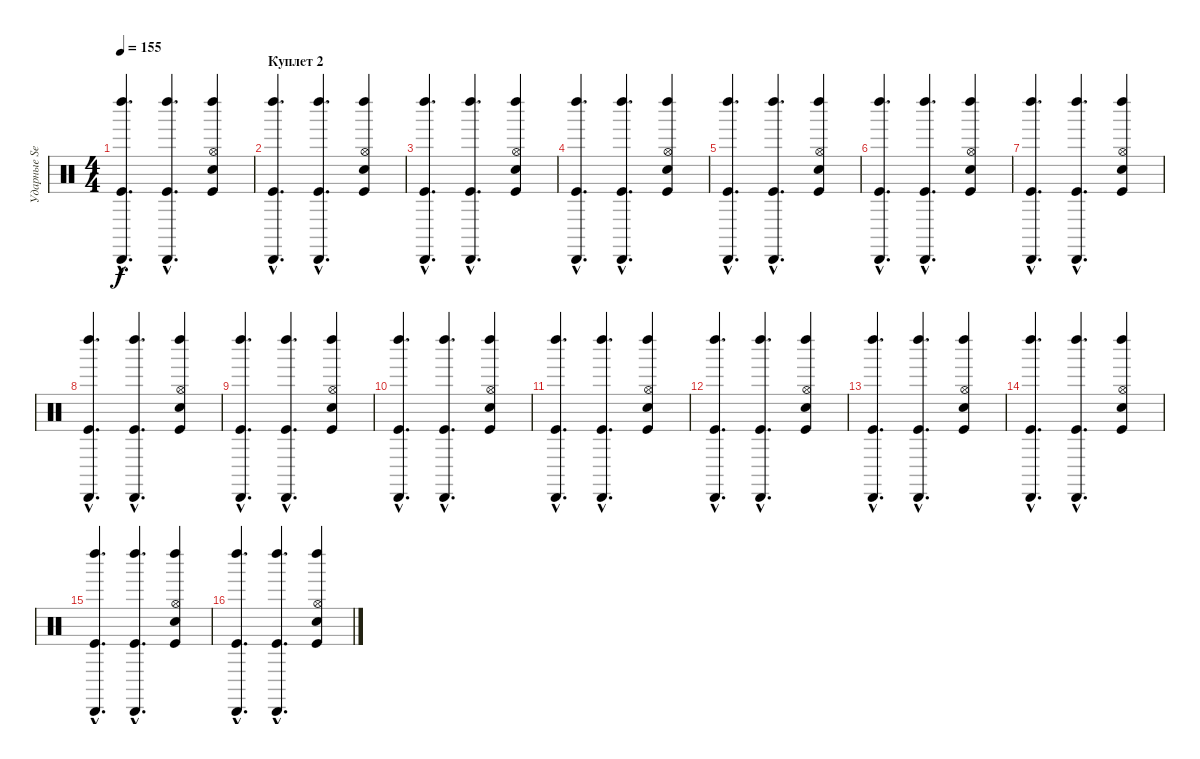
\track ("Ударные Serge Petrone" "Ударные Se") {instrument percussion}
\staff {score}
\articulation defaults
\ts (4 4)
\tempo 155
\clef neutral
\ks c
("Cabasa (hit)"{hac} "Kick (hit)"{hac} "Left Maraca (hit)"{hac}).4{d dy f} ("Cabasa (hit)"{hac} "Kick (hit)"{hac} "Left Maraca (hit)"{hac}).4{d} ("Hi-Hat (open)" "Hand Clap (hit)" "Kick (hit)" "Left Maraca (hit)").4 |
\section ("" "Куплет 2")
("Cabasa (hit)"{hac} "Kick (hit)"{hac} "Left Maraca (hit)"{hac}).4{d} ("Cabasa (hit)"{hac} "Kick (hit)"{hac} "Left Maraca (hit)"{hac}).4{d} ("Hi-Hat (open)" "Hand Clap (hit)" "Kick (hit)" "Left Maraca (hit)").4 |
("Cabasa (hit)"{hac} "Kick (hit)"{hac} "Left Maraca (hit)"{hac}).4{d} ("Cabasa (hit)"{hac} "Kick (hit)"{hac} "Left Maraca (hit)"{hac}).4{d} ("Hi-Hat (open)" "Hand Clap (hit)" "Kick (hit)" "Left Maraca (hit)").4 |
("Cabasa (hit)"{hac} "Kick (hit)"{hac} "Left Maraca (hit)"{hac}).4{d} ("Cabasa (hit)"{hac} "Kick (hit)"{hac} "Left Maraca (hit)"{hac}).4{d} ("Hi-Hat (open)" "Hand Clap (hit)" "Kick (hit)" "Left Maraca (hit)").4 |
("Cabasa (hit)"{hac} "Kick (hit)"{hac} "Left Maraca (hit)"{hac}).4{d} ("Cabasa (hit)"{hac} "Kick (hit)"{hac} "Left Maraca (hit)"{hac}).4{d} ("Hi-Hat (open)" "Hand Clap (hit)" "Kick (hit)" "Left Maraca (hit)").4 |
("Cabasa (hit)"{hac} "Kick (hit)"{hac} "Left Maraca (hit)"{hac}).4{d} ("Cabasa (hit)"{hac} "Kick (hit)"{hac} "Left Maraca (hit)"{hac}).4{d} ("Hi-Hat (open)" "Hand Clap (hit)" "Kick (hit)" "Left Maraca (hit)").4 |
("Cabasa (hit)"{hac} "Kick (hit)"{hac} "Left Maraca (hit)"{hac}).4{d} ("Cabasa (hit)"{hac} "Kick (hit)"{hac} "Left Maraca (hit)"{hac}).4{d} ("Hi-Hat (open)" "Hand Clap (hit)" "Kick (hit)" "Left Maraca (hit)").4 |
("Cabasa (hit)"{hac} "Kick (hit)"{hac} "Left Maraca (hit)"{hac}).4{d} ("Cabasa (hit)"{hac} "Kick (hit)"{hac} "Left Maraca (hit)"{hac}).4{d} ("Hi-Hat (open)" "Hand Clap (hit)" "Kick (hit)" "Left Maraca (hit)").4 |
("Cabasa (hit)"{hac} "Kick (hit)"{hac} "Left Maraca (hit)"{hac}).4{d} ("Cabasa (hit)"{hac} "Kick (hit)"{hac} "Left Maraca (hit)"{hac}).4{d} ("Hi-Hat (open)" "Hand Clap (hit)" "Kick (hit)" "Left Maraca (hit)").4 |
("Cabasa (hit)"{hac} "Kick (hit)"{hac} "Left Maraca (hit)"{hac}).4{d} ("Cabasa (hit)"{hac} "Kick (hit)"{hac} "Left Maraca (hit)"{hac}).4{d} ("Hi-Hat (open)" "Hand Clap (hit)" "Kick (hit)" "Left Maraca (hit)").4 |
("Cabasa (hit)"{hac} "Kick (hit)"{hac} "Left Maraca (hit)"{hac}).4{d} ("Cabasa (hit)"{hac} "Kick (hit)"{hac} "Left Maraca (hit)"{hac}).4{d} ("Hi-Hat (open)" "Hand Clap (hit)" "Kick (hit)" "Left Maraca (hit)").4 |
("Cabasa (hit)"{hac} "Kick (hit)"{hac} "Left Maraca (hit)"{hac}).4{d} ("Cabasa (hit)"{hac} "Kick (hit)"{hac} "Left Maraca (hit)"{hac}).4{d} ("Hi-Hat (open)" "Hand Clap (hit)" "Kick (hit)" "Left Maraca (hit)").4 |
("Cabasa (hit)"{hac} "Kick (hit)"{hac} "Left Maraca (hit)"{hac}).4{d} ("Cabasa (hit)"{hac} "Kick (hit)"{hac} "Left Maraca (hit)"{hac}).4{d} ("Hi-Hat (open)" "Hand Clap (hit)" "Kick (hit)" "Left Maraca (hit)").4 |
("Cabasa (hit)"{hac} "Kick (hit)"{hac} "Left Maraca (hit)"{hac}).4{d} ("Cabasa (hit)"{hac} "Kick (hit)"{hac} "Left Maraca (hit)"{hac}).4{d} ("Hi-Hat (open)" "Hand Clap (hit)" "Kick (hit)" "Left Maraca (hit)").4 |
("Cabasa (hit)"{hac} "Kick (hit)"{hac} "Left Maraca (hit)"{hac}).4{d} ("Cabasa (hit)"{hac} "Kick (hit)"{hac} "Left Maraca (hit)"{hac}).4{d} ("Hi-Hat (open)" "Hand Clap (hit)" "Kick (hit)" "Left Maraca (hit)").4 |
("Cabasa (hit)"{hac} "Kick (hit)"{hac} "Left Maraca (hit)"{hac}).4{d} ("Cabasa (hit)"{hac} "Kick (hit)"{hac} "Left Maraca (hit)"{hac}).4{d} ("Hi-Hat (open)" "Hand Clap (hit)" "Kick (hit)" "Left Maraca (hit)").4
